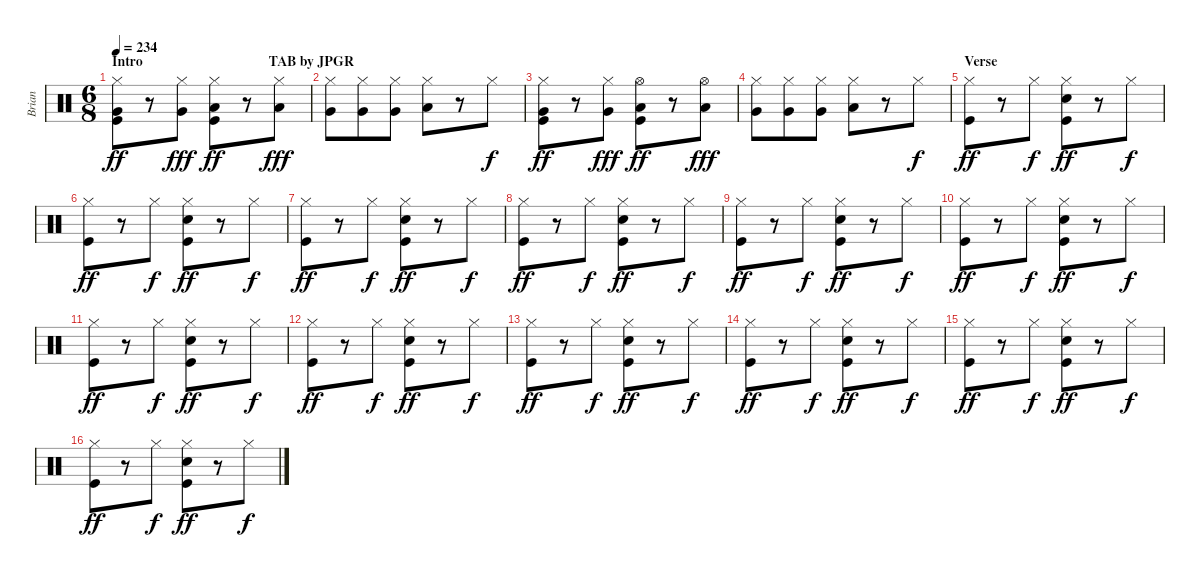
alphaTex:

\track ("Brian" "Brian") {instrument percussion}
\staff {score}
\articulation defaults
\ts (6 8)
\section ("" "Intro                                    TAB by JPGR")
\tempo 234
\clef neutral
\ks c
("Hi-Hat (closed)" "Very Low Tom (hit)" "Kick (hit)").8{dy ff} r.8 ("Hi-Hat (closed)" "Very Low Tom (hit)").8{dy fff} ("Hi-Hat (closed)" "Low Floor Tom (hit)" "Kick (hit)").8{dy ff} r.8 ("Hi-Hat (closed)" "Low Floor Tom (hit)").8{dy fff} |
("Hi-Hat (closed)" "Very Low Tom (hit)").8 ("Hi-Hat (closed)" "Very Low Tom (hit)").8 ("Hi-Hat (closed)" "Very Low Tom (hit)").8 ("Hi-Hat (closed)" "Low Floor Tom (hit)").8 r.8 "Hi-Hat (closed)".8{dy f} |
("Hi-Hat (closed)" "Very Low Tom (hit)" "Kick (hit)").8{dy ff} r.8 ("Hi-Hat (closed)" "Very Low Tom (hit)").8{dy fff} ("Hi-Hat (open)" "Low Floor Tom (hit)" "Kick (hit)").8{dy ff} r.8 ("Hi-Hat (open)" "Low Floor Tom (hit)").8{dy fff} |
("Hi-Hat (closed)" "Very Low Tom (hit)").8 ("Hi-Hat (closed)" "Very Low Tom (hit)").8 ("Hi-Hat (closed)" "Very Low Tom (hit)").8 ("Hi-Hat (closed)" "Low Floor Tom (hit)").8 r.8 "Hi-Hat (closed)".8{dy f} |
\section ("" "Verse")
("Hi-Hat (closed)" "Kick (hit)").8{dy ff} r.8 "Hi-Hat (closed)".8{dy f} ("Hi-Hat (closed)" "Electric Snare (hit)" "Kick (hit)").8{dy ff} r.8 "Hi-Hat (closed)".8{dy f} |
("Hi-Hat (closed)" "Kick (hit)").8{dy ff} r.8 "Hi-Hat (closed)".8{dy f} ("Hi-Hat (closed)" "Electric Snare (hit)" "Kick (hit)").8{dy ff} r.8 "Hi-Hat (closed)".8{dy f} |
("Hi-Hat (closed)" "Kick (hit)").8{dy ff} r.8 "Hi-Hat (closed)".8{dy f} ("Hi-Hat (closed)" "Electric Snare (hit)" "Kick (hit)").8{dy ff} r.8 "Hi-Hat (closed)".8{dy f} |
("Hi-Hat (closed)" "Kick (hit)").8{dy ff} r.8 "Hi-Hat (closed)".8{dy f} ("Hi-Hat (closed)" "Electric Snare (hit)" "Kick (hit)").8{dy ff} r.8 "Hi-Hat (closed)".8{dy f} |
("Hi-Hat (closed)" "Kick (hit)").8{dy ff} r.8 "Hi-Hat (closed)".8{dy f} ("Hi-Hat (closed)" "Electric Snare (hit)" "Kick (hit)").8{dy ff} r.8 "Hi-Hat (closed)".8{dy f} |
("Hi-Hat (closed)" "Kick (hit)").8{dy ff} r.8 "Hi-Hat (closed)".8{dy f} ("Hi-Hat (closed)" "Electric Snare (hit)" "Kick (hit)").8{dy ff} r.8 "Hi-Hat (closed)".8{dy f} |
("Hi-Hat (closed)" "Kick (hit)").8{dy ff} r.8 "Hi-Hat (closed)".8{dy f} ("Hi-Hat (closed)" "Electric Snare (hit)" "Kick (hit)").8{dy ff} r.8 "Hi-Hat (closed)".8{dy f} |
("Hi-Hat (closed)" "Kick (hit)").8{dy ff} r.8 "Hi-Hat (closed)".8{dy f} ("Hi-Hat (closed)" "Electric Snare (hit)" "Kick (hit)").8{dy ff} r.8 "Hi-Hat (closed)".8{dy f} |
("Hi-Hat (closed)" "Kick (hit)").8{dy ff} r.8 "Hi-Hat (closed)".8{dy f} ("Hi-Hat (closed)" "Electric Snare (hit)" "Kick (hit)").8{dy ff} r.8 "Hi-Hat (closed)".8{dy f} |
("Hi-Hat (closed)" "Kick (hit)").8{dy ff} r.8 "Hi-Hat (closed)".8{dy f} ("Hi-Hat (closed)" "Electric Snare (hit)" "Kick (hit)").8{dy ff} r.8 "Hi-Hat (closed)".8{dy f} |
("Hi-Hat (closed)" "Kick (hit)").8{dy ff} r.8 "Hi-Hat (closed)".8{dy f} ("Hi-Hat (closed)" "Electric Snare (hit)" "Kick (hit)").8{dy ff} r.8 "Hi-Hat (closed)".8{dy f} |
("Hi-Hat (closed)" "Kick (hit)").8{dy ff} r.8 "Hi-Hat (closed)".8{dy f} ("Hi-Hat (closed)" "Electric Snare (hit)" "Kick (hit)").8{dy ff} r.8 "Hi-Hat (closed)".8{dy f}
